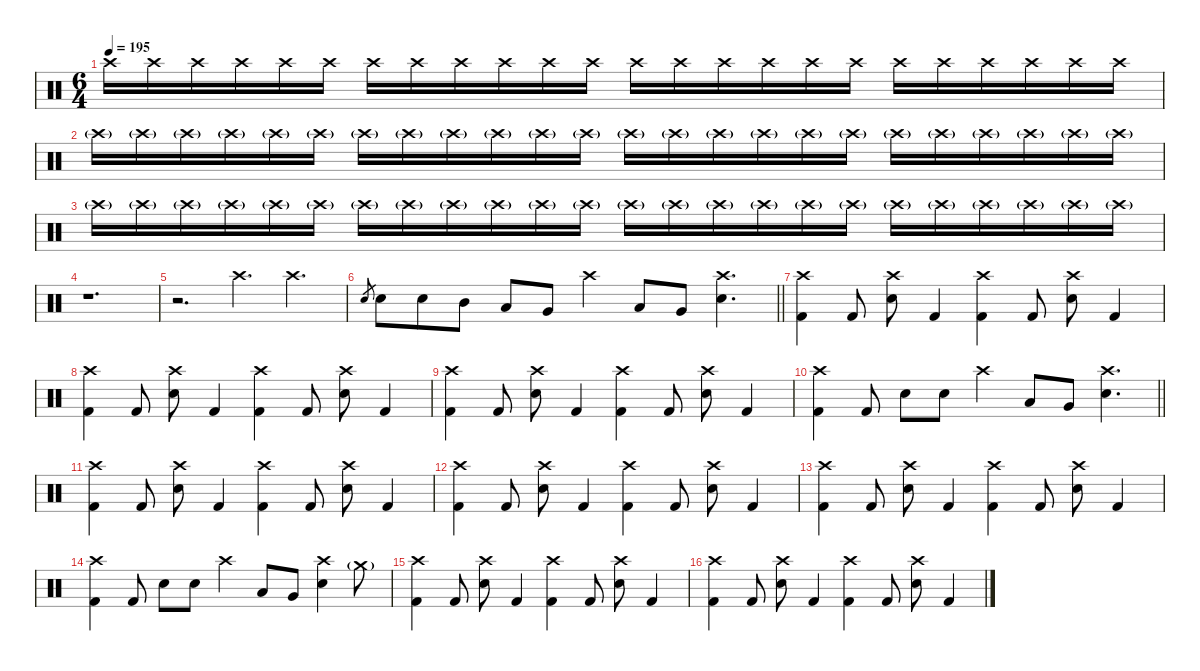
\defaultSystemsLayout 4
\hideDynamics
\bracketExtendMode nobrackets
\singleTrackTrackNamePolicy hidden
\multiTrackTrackNamePolicy hidden
\firstSystemTrackNameMode fullname
\firstSystemTrackNameOrientation horizontal
\otherSystemsTrackNameOrientation horizontal
\track ("Drums" "drm.") {instrument percussion}
\staff {score}
\articulation defaults
\ts (6 4)
\beaming (8 3 3 3 3)
\tempo 195
\clef neutral
\ks c "Crash high (hit)".16{dy f beam Down} "Crash high (hit)".16{beam Down} "Crash high (hit)".16{beam Down} "Crash high (hit)".16{beam Down} "Crash high (hit)".16{beam Down} "Crash high (hit)".16{beam Down} "Crash high (hit)".16{beam Down} "Crash high (hit)".16{beam Down} "Crash high (hit)".16{beam Down} "Crash high (hit)".16{beam Down} "Crash high (hit)".16{beam Down} "Crash high (hit)".16{beam Down} "Crash high (hit)".16{beam Down} "Crash high (hit)".16{beam Down} "Crash high (hit)".16{beam Down} "Crash high (hit)".16{beam Down} "Crash high (hit)".16{beam Down} "Crash high (hit)".16{beam Down} "Crash high (hit)".16{beam Down} "Crash high (hit)".16{beam Down} "Crash high (hit)".16{beam Down} "Crash high (hit)".16{beam Down} "Crash high (hit)".16{beam Down} "Crash high (hit)".16{beam Down}
|
"Crash high (hit)"{g}.16{dy mf beam Down} "Crash high (hit)"{g}.16{beam Down} "Crash high (hit)"{g}.16{beam Down} "Crash high (hit)"{g}.16{beam Down} "Crash high (hit)"{g}.16{beam Down} "Crash high (hit)"{g}.16{beam Down} "Crash high (hit)"{g}.16{beam Down} "Crash high (hit)"{g}.16{beam Down} "Crash high (hit)"{g}.16{beam Down} "Crash high (hit)"{g}.16{beam Down} "Crash high (hit)"{g}.16{beam Down} "Crash high (hit)"{g}.16{beam Down} "Crash high (hit)"{g}.16{beam Down} "Crash high (hit)"{g}.16{beam Down} "Crash high (hit)"{g}.16{beam Down} "Crash high (hit)"{g}.16{beam Down} "Crash high (hit)"{g}.16{beam Down} "Crash high (hit)"{g}.16{beam Down} "Crash high (hit)"{g}.16{beam Down} "Crash high (hit)"{g}.16{beam Down} "Crash high (hit)"{g}.16{beam Down} "Crash high (hit)"{g}.16{beam Down} "Crash high (hit)"{g}.16{beam Down} "Crash high (hit)"{g}.16{beam Down} |
"Crash high (hit)"{g}.16{beam Down} "Crash high (hit)"{g}.16{beam Down} "Crash high (hit)"{g}.16{beam Down} "Crash high (hit)"{g}.16{beam Down} "Crash high (hit)"{g}.16{beam Down} "Crash high (hit)"{g}.16{beam Down} "Crash high (hit)"{g}.16{beam Down} "Crash high (hit)"{g}.16{beam Down} "Crash high (hit)"{g}.16{beam Down} "Crash high (hit)"{g}.16{beam Down} "Crash high (hit)"{g}.16{beam Down} "Crash high (hit)"{g}.16{beam Down} "Crash high (hit)"{g}.16{beam Down} "Crash high (hit)"{g}.16{beam Down} "Crash high (hit)"{g}.16{beam Down} "Crash high (hit)"{g}.16{beam Down} "Crash high (hit)"{g}.16{beam Down} "Crash high (hit)"{g}.16{beam Down} "Crash high (hit)"{g}.16{beam Down} "Crash high (hit)"{g}.16{beam Down} "Crash high (hit)"{g}.16{beam Down} "Crash high (hit)"{g}.16{beam Down} "Crash high (hit)"{g}.16{beam Down} "Crash high (hit)"{g}.16{beam Down} |
r.1{d beam Down} |
r.2{d beam Down} "Crash high (hit)".4{d dy f beam Down} "Crash high (hit)".4{d beam Down} |
\barLineRight lightlight "Electric Snare (hit)".8{gr dy mf beam Up} "Snare (hit) 2".8{dy f beam Down} "Snare (hit) 2".8{beam Down} "Mid Tom (hit)".8{beam Down} "Low Tom (hit)".8{beam Up} "Very Low Tom (hit)".8{beam Up} "Crash high (hit)".4{beam Down} "Low Tom (hit)".8{beam Up} "Very Low Tom (hit)".8{beam Up}
("Crash high (hit)" "Snare (hit) 2").4{d beam Down} |
("Crash high (hit)" "Kick (hit) 2").4{beam Down} "Kick (hit) 2".8{beam Up} ("Crash high (hit)" "Snare (hit) 2").8{beam Down} "Kick (hit) 2".4{beam Up} ("Crash high (hit)" "Kick (hit) 2").4{beam Down} "Kick (hit) 2".8{beam Up} ("Crash high (hit)" "Snare (hit) 2").8{beam Down} "Kick (hit) 2".4{beam Up} |
("Crash high (hit)" "Kick (hit) 2").4{beam Down} "Kick (hit) 2".8{beam Up} ("Crash high (hit)" "Snare (hit) 2").8{beam Down} "Kick (hit) 2".4{beam Up} ("Crash high (hit)" "Kick (hit) 2").4{beam Down} "Kick (hit) 2".8{beam Up} ("Crash high (hit)" "Snare (hit) 2").8{beam Down} "Kick (hit) 2".4{beam Up} |
("Crash high (hit)" "Kick (hit) 2").4{beam Down} "Kick (hit) 2".8{beam Up} ("Crash high (hit)" "Snare (hit) 2").8{beam Down} "Kick (hit) 2".4{beam Up} ("Crash high (hit)" "Kick (hit) 2").4{beam Down} "Kick (hit) 2".8{beam Up} ("Crash high (hit)" "Snare (hit) 2").8{beam Down} "Kick (hit) 2".4{beam Up} |
\barLineRight lightlight
("Crash high (hit)" "Kick (hit) 2").4{beam Down} "Kick (hit) 2".8{beam Up} "Snare (hit) 2".8{beam Down} "Snare (hit) 2".8{beam Down} "Crash high (hit)".4{beam Down} "Low Tom (hit)".8{beam Up} "Very Low Tom (hit)".8{beam Up} ("Crash high (hit)" "Snare (hit) 2").4{d beam Down} |
("Crash high (hit)" "Kick (hit) 2").4{beam Down} "Kick (hit) 2".8{beam Up} ("Crash high (hit)" "Snare (hit) 2").8{beam Down} "Kick (hit) 2".4{beam Up} ("Crash high (hit)" "Kick (hit) 2").4{beam Down} "Kick (hit) 2".8{beam Up} ("Crash high (hit)" "Snare (hit) 2").8{beam Down} "Kick (hit) 2".4{beam Up} |
("Crash high (hit)" "Kick (hit) 2").4{beam Down} "Kick (hit) 2".8{beam Up} ("Crash high (hit)" "Snare (hit) 2").8{beam Down} "Kick (hit) 2".4{beam Up} ("Crash high (hit)" "Kick (hit) 2").4{beam Down} "Kick (hit) 2".8{beam Up} ("Crash high (hit)" "Snare (hit) 2").8{beam Down} "Kick (hit) 2".4{beam Up} |
("Crash high (hit)" "Kick (hit) 2").4{beam Down} "Kick (hit) 2".8{beam Up} ("Crash high (hit)" "Snare (hit) 2").8{beam Down} "Kick (hit) 2".4{beam Up} ("Crash high (hit)" "Kick (hit) 2").4{beam Down} "Kick (hit) 2".8{beam Up} ("Crash high (hit)" "Snare (hit) 2").8{beam Down} "Kick (hit) 2".4{beam Up} |
("Crash high (hit)" "Kick (hit) 2").4{beam Down} "Kick (hit) 2".8{beam Up} "Snare (hit) 2".8{beam Down} "Snare (hit) 2".8{beam Down} "Crash high (hit)".4{beam Down} "Low Tom (hit)".8{beam Up} "Very Low Tom (hit)".8{beam Up} ("Crash high (hit)" "Snare (hit) 2").4{beam Down} "Crash medium (hit)"{g}.8{dy mf beam Down} |
("Crash high (hit)" "Kick (hit) 2").4{dy f beam Down} "Kick (hit) 2".8{beam Up} ("Crash high (hit)" "Snare (hit) 2").8{beam Down} "Kick (hit) 2".4{beam Up} ("Crash high (hit)" "Kick (hit) 2").4{beam Down} "Kick (hit) 2".8{beam Up} ("Crash high (hit)" "Snare (hit) 2").8{beam Down} "Kick (hit) 2".4{beam Up} |
("Crash high (hit)" "Kick (hit) 2").4{beam Down} "Kick (hit) 2".8{beam Up} ("Crash high (hit)" "Snare (hit) 2").8{beam Down} "Kick (hit) 2".4{beam Up} ("Crash high (hit)" "Kick (hit) 2").4{beam Down} "Kick (hit) 2".8{beam Up} ("Crash high (hit)" "Snare (hit) 2").8{beam Down} "Kick (hit) 2".4{beam Up}
